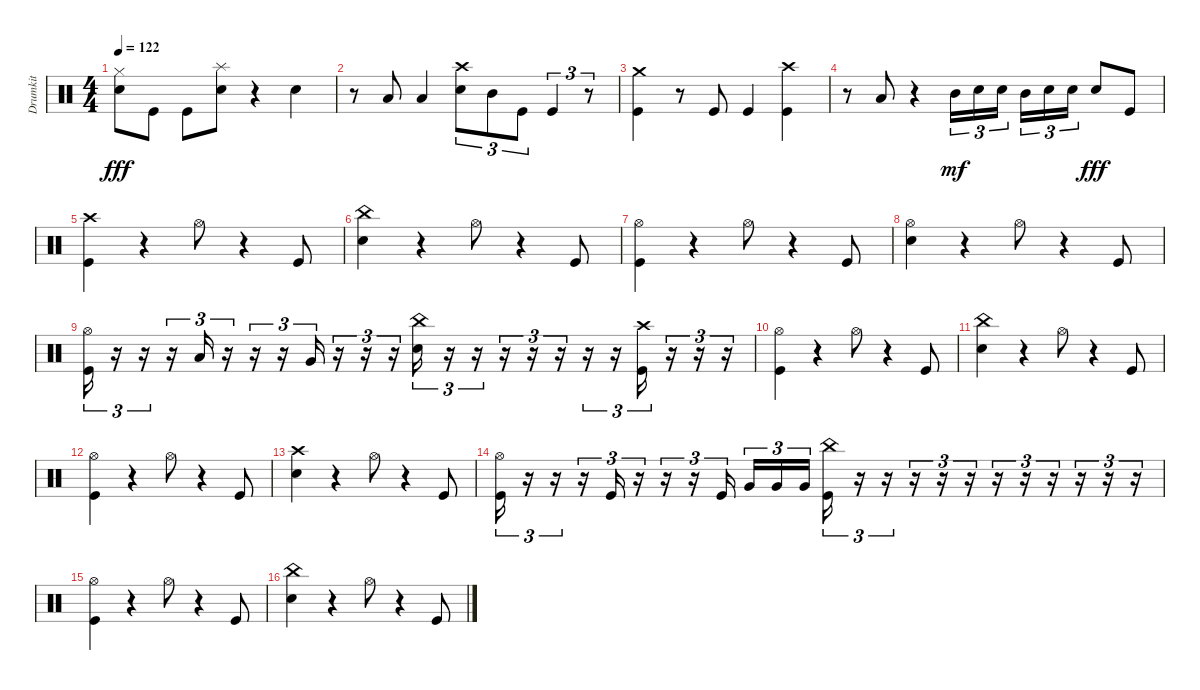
\track ("Drumkit" "Drumkit") {mute instrument percussion}
\staff {score}
\articulation defaults
\ts (4 4)
\tempo 122
\clef neutral
\ks c
("Hi-Hat (closed)" "Snare (hit) 2").8{dy fff} "Kick (hit)".8 "Kick (hit)".8 ("Snare (hit) 2" "Splash (hit)").8 r.4 "Snare (hit) 2".4 |
r.8 "Low Tom (hit)".8 "Low Tom (hit)".4 ("Snare (hit) 2" "Crash high (hit)").8{tu (3 2)} "Mid Tom (hit)".8{tu (3 2)} "Kick (hit)".8{tu (3 2)} "Kick (hit)".4{tu (3 2)} r.8{tu (3 2)} |
("Kick (hit)" "Crash medium (hit)").4 r.8 "Kick (hit)".8 "Kick (hit)".4 ("Kick (hit)" "Crash high (hit)").4 |
r.8 "Low Tom (hit)".8 r.4 "Mid Tom (hit)".16{tu (3 2) dy mf} "Snare (hit) 2".16{tu (3 2)} "Snare (hit) 2".16{tu (3 2)} "Mid Tom (hit)".16{tu (3 2)} "Snare (hit) 2".16{tu (3 2)} "Snare (hit) 2".16{tu (3 2)} "Snare (hit) 2".8{dy fff} "Kick (hit)".8 |
("Kick (hit)" "Crash high (hit)").4 r.4 "Hi-Hat (open)".8 r.4 "Kick (hit)".8 |
("Snare (hit) 2" "China (hit)").4 r.4 "Hi-Hat (open)".8 r.4 "Kick (hit)".8 |
("Kick (hit)" "Hi-Hat (open)").4 r.4 "Hi-Hat (open)".8 r.4 "Kick (hit)".8 |
("Snare (hit) 2" "Hi-Hat (open)").4 r.4 "Hi-Hat (open)".8 r.4 "Kick (hit)".8 |
("Kick (hit)" "Hi-Hat (open)").16{tu (3 2)} r.16{tu (3 2)} r.16{tu (3 2)} r.16{tu (3 2)} "Low Tom (hit)".16{tu (3 2)} r.16{tu (3 2)} r.16{tu (3 2)} r.16{tu (3 2)} "Very Low Tom (hit)".16{tu (3 2)} r.16{tu (3 2)} r.16{tu (3 2)} r.16{tu (3 2)} ("Snare (hit) 2" "China (hit)").16{tu (3 2)} r.16{tu (3 2)} r.16{tu (3 2)} r.16{tu (3 2)} r.16{tu (3 2)} r.16{tu (3 2)} r.16{tu (3 2)} r.16{tu (3 2)} ("Kick (hit)" "Crash high (hit)").16{tu (3 2)} r.16{tu (3 2)} r.16{tu (3 2)} r.16{tu (3 2)} |
("Kick (hit)" "Hi-Hat (open)").4 r.4 "Hi-Hat (open)".8 r.4 "Kick (hit)".8 |
("Snare (hit) 2" "China (hit)").4 r.4 "Hi-Hat (open)".8 r.4 "Kick (hit)".8 |
("Kick (hit)" "Hi-Hat (open)").4 r.4 "Hi-Hat (open)".8 r.4 "Kick (hit)".8 |
("Snare (hit) 2" "Crash high (hit)").4 r.4 "Hi-Hat (open)".8 r.4 "Kick (hit)".8 |
("Kick (hit)" "Hi-Hat (open)").16{tu (3 2)} r.16{tu (3 2)} r.16{tu (3 2)} r.16{tu (3 2)} "Kick (hit)".16{tu (3 2)} r.16{tu (3 2)} r.16{tu (3 2)} r.16{tu (3 2)} "Kick (hit)".16{tu (3 2)} "Very Low Tom (hit)".16{tu (3 2)} "Very Low Tom (hit)".16{tu (3 2)} "Very Low Tom (hit)".16{tu (3 2)} ("Kick (hit)" "China (hit)").16{tu (3 2)} r.16{tu (3 2)} r.16{tu (3 2)} r.16{tu (3 2)} r.16{tu (3 2)} r.16{tu (3 2)} r.16{tu (3 2)} r.16{tu (3 2)} r.16{tu (3 2)} r.16{tu (3 2)} r.16{tu (3 2)} r.16{tu (3 2)} |
("Kick (hit)" "Hi-Hat (open)").4 r.4 "Hi-Hat (open)".8 r.4 "Kick (hit)".8 |
("Snare (hit) 2" "China (hit)").4 r.4 "Hi-Hat (open)".8 r.4 "Kick (hit)".8
